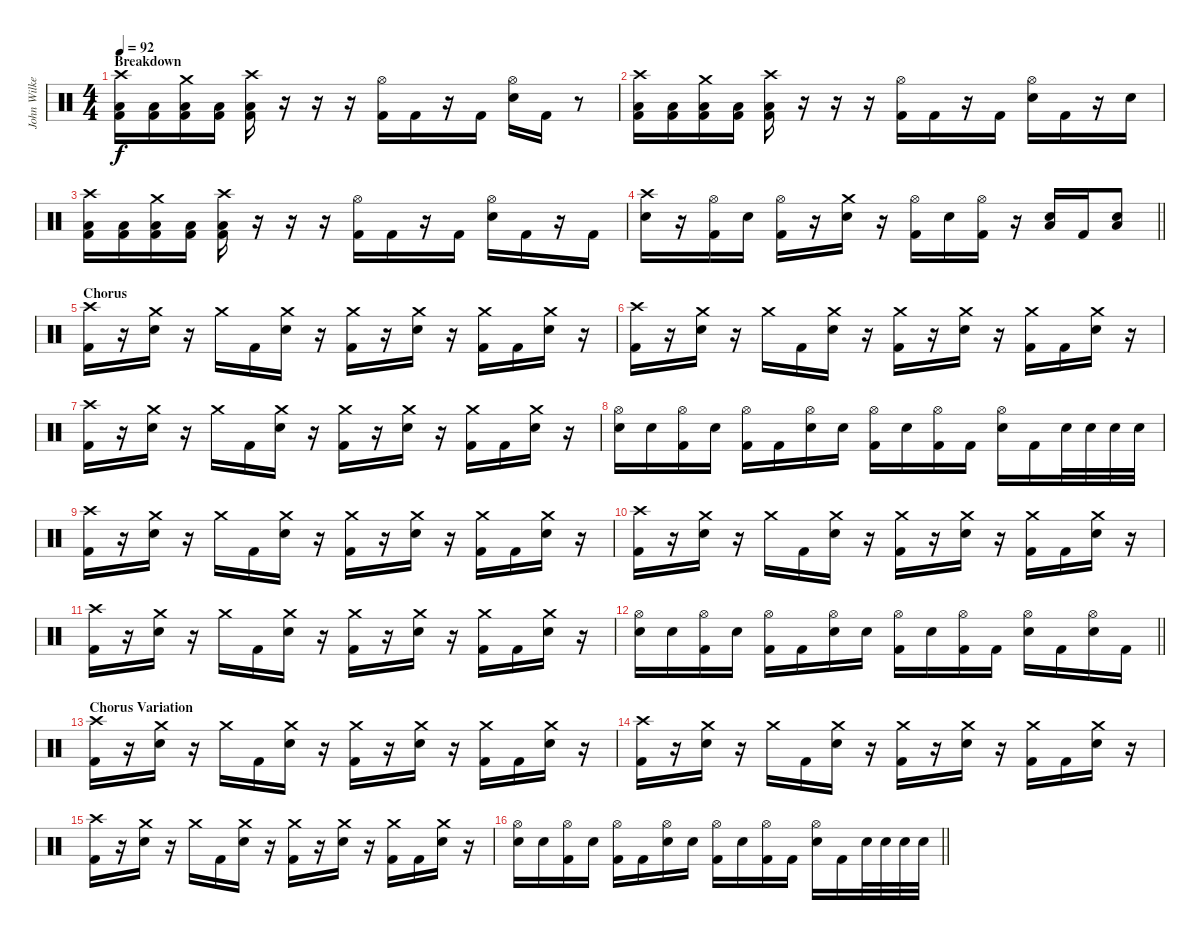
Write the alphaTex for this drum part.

\track ("John Wilkes (Percussion)" "John Wilke") {instrument percussion}
\staff {score}
\articulation defaults
\ts (4 4)
\section ("" "Breakdown")
\tempo 92
\clef neutral
\ks c
("Crash high (hit)" "Low Floor Tom (hit)" "Kick (hit) 2").16{dy f} ("Low Floor Tom (hit)" "Kick (hit) 2").16 ("Crash medium (hit)" "Low Floor Tom (hit)" "Kick (hit) 2").16 ("Low Floor Tom (hit)" "Kick (hit) 2").16 ("Crash high (hit)" "Low Floor Tom (hit)" "Kick (hit) 2").16 r.16 r.16 r.16 ("Hi-Hat (open)" "Kick (hit) 2").16 "Kick (hit) 2".16 r.16 "Kick (hit) 2".16 ("Hi-Hat (open)" "Electric Snare (hit)").16 "Kick (hit) 2".16 r.8 |
("Crash high (hit)" "Low Floor Tom (hit)" "Kick (hit) 2").16 ("Low Floor Tom (hit)" "Kick (hit) 2").16 ("Crash medium (hit)" "Low Floor Tom (hit)" "Kick (hit) 2").16 ("Low Floor Tom (hit)" "Kick (hit) 2").16 ("Crash high (hit)" "Low Floor Tom (hit)" "Kick (hit) 2").16 r.16 r.16 r.16 ("Hi-Hat (open)" "Kick (hit) 2").16 "Kick (hit) 2".16 r.16 "Kick (hit) 2".16 ("Hi-Hat (open)" "Electric Snare (hit)").16 "Kick (hit) 2".16 r.16 "Electric Snare (hit)".16 |
("Crash high (hit)" "Low Floor Tom (hit)" "Kick (hit) 2").16 ("Low Floor Tom (hit)" "Kick (hit) 2").16 ("Crash medium (hit)" "Low Floor Tom (hit)" "Kick (hit) 2").16 ("Low Floor Tom (hit)" "Kick (hit) 2").16 ("Crash high (hit)" "Low Floor Tom (hit)" "Kick (hit) 2").16 r.16 r.16 r.16 ("Hi-Hat (open)" "Kick (hit) 2").16 "Kick (hit) 2".16 r.16 "Kick (hit) 2".16 ("Hi-Hat (open)" "Electric Snare (hit)").16 "Kick (hit) 2".16 r.16 "Kick (hit) 2".16 |
\barLineRight lightlight
("Crash high (hit)" "Electric Snare (hit)").16 r.16 ("Hi-Hat (open)" "Kick (hit) 2").16 "Electric Snare (hit)".16 ("Hi-Hat (open)" "Kick (hit) 2").16 r.16 ("Crash medium (hit)" "Electric Snare (hit)").16 r.16 ("Hi-Hat (open)" "Kick (hit) 2").16 "Electric Snare (hit)".16 ("Hi-Hat (open)" "Kick (hit) 2").16 r.16 ("Electric Snare (hit)" "Low Floor Tom (hit)").16 "Kick (hit) 2".16 ("Electric Snare (hit)" "Low Floor Tom (hit)").8 |
\section ("" "Chorus")
("Crash high (hit)" "Kick (hit) 2").16 r.16 ("Crash medium (hit)" "Electric Snare (hit)").16 r.16 "Crash medium (hit)".16 "Kick (hit) 2".16 ("Crash medium (hit)" "Electric Snare (hit)").16 r.16 ("Crash medium (hit)" "Kick (hit) 2").16 r.16 ("Crash medium (hit)" "Electric Snare (hit)").16 r.16 ("Crash medium (hit)" "Kick (hit) 2").16 "Kick (hit) 2".16 ("Crash medium (hit)" "Electric Snare (hit)").16 r.16 |
("Crash high (hit)" "Kick (hit) 2").16 r.16 ("Crash medium (hit)" "Electric Snare (hit)").16 r.16 "Crash medium (hit)".16 "Kick (hit) 2".16 ("Crash medium (hit)" "Electric Snare (hit)").16 r.16 ("Crash medium (hit)" "Kick (hit) 2").16 r.16 ("Crash medium (hit)" "Electric Snare (hit)").16 r.16 ("Crash medium (hit)" "Kick (hit) 2").16 "Kick (hit) 2".16 ("Crash medium (hit)" "Electric Snare (hit)").16 r.16 |
("Crash high (hit)" "Kick (hit) 2").16 r.16 ("Crash medium (hit)" "Electric Snare (hit)").16 r.16 "Crash medium (hit)".16 "Kick (hit) 2".16 ("Crash medium (hit)" "Electric Snare (hit)").16 r.16 ("Crash medium (hit)" "Kick (hit) 2").16 r.16 ("Crash medium (hit)" "Electric Snare (hit)").16 r.16 ("Crash medium (hit)" "Kick (hit) 2").16 "Kick (hit) 2".16 ("Crash medium (hit)" "Electric Snare (hit)").16 r.16 |
("Hi-Hat (open)" "Electric Snare (hit)").16 "Electric Snare (hit)".16 ("Hi-Hat (open)" "Kick (hit) 2").16 "Electric Snare (hit)".16 ("Hi-Hat (open)" "Kick (hit) 2").16 "Kick (hit) 2".16 ("Hi-Hat (open)" "Electric Snare (hit)").16 "Electric Snare (hit)".16 ("Hi-Hat (open)" "Kick (hit) 2").16 "Electric Snare (hit)".16 ("Hi-Hat (open)" "Kick (hit) 2").16 "Kick (hit) 2".16 ("Hi-Hat (open)" "Electric Snare (hit)").16 "Kick (hit) 2".16 "Electric Snare (hit)".32 "Electric Snare (hit)".32 "Electric Snare (hit)".32 "Electric Snare (hit)".32 |
("Crash high (hit)" "Kick (hit) 2").16 r.16 ("Crash medium (hit)" "Electric Snare (hit)").16 r.16 "Crash medium (hit)".16 "Kick (hit) 2".16 ("Crash medium (hit)" "Electric Snare (hit)").16 r.16 ("Crash medium (hit)" "Kick (hit) 2").16 r.16 ("Crash medium (hit)" "Electric Snare (hit)").16 r.16 ("Crash medium (hit)" "Kick (hit) 2").16 "Kick (hit) 2".16 ("Crash medium (hit)" "Electric Snare (hit)").16 r.16 |
("Crash high (hit)" "Kick (hit) 2").16 r.16 ("Crash medium (hit)" "Electric Snare (hit)").16 r.16 "Crash medium (hit)".16 "Kick (hit) 2".16 ("Crash medium (hit)" "Electric Snare (hit)").16 r.16 ("Crash medium (hit)" "Kick (hit) 2").16 r.16 ("Crash medium (hit)" "Electric Snare (hit)").16 r.16 ("Crash medium (hit)" "Kick (hit) 2").16 "Kick (hit) 2".16 ("Crash medium (hit)" "Electric Snare (hit)").16 r.16 |
("Crash high (hit)" "Kick (hit) 2").16 r.16 ("Crash medium (hit)" "Electric Snare (hit)").16 r.16 "Crash medium (hit)".16 "Kick (hit) 2".16 ("Crash medium (hit)" "Electric Snare (hit)").16 r.16 ("Crash medium (hit)" "Kick (hit) 2").16 r.16 ("Crash medium (hit)" "Electric Snare (hit)").16 r.16 ("Crash medium (hit)" "Kick (hit) 2").16 "Kick (hit) 2".16 ("Crash medium (hit)" "Electric Snare (hit)").16 r.16 |
\barLineRight lightlight
("Hi-Hat (open)" "Electric Snare (hit)").16 "Electric Snare (hit)".16 ("Hi-Hat (open)" "Kick (hit) 2").16 "Electric Snare (hit)".16 ("Hi-Hat (open)" "Kick (hit) 2").16 "Kick (hit) 2".16 ("Hi-Hat (open)" "Electric Snare (hit)").16 "Electric Snare (hit)".16 ("Hi-Hat (open)" "Kick (hit) 2").16 "Electric Snare (hit)".16 ("Hi-Hat (open)" "Kick (hit) 2").16 "Kick (hit) 2".16 ("Hi-Hat (open)" "Electric Snare (hit)").16 "Kick (hit) 2".16 ("Hi-Hat (open)" "Electric Snare (hit)").16 "Kick (hit) 2".16 |
\section ("" "Chorus Variation")
("Crash high (hit)" "Kick (hit) 2").16 r.16 ("Crash medium (hit)" "Electric Snare (hit)").16 r.16 "Crash medium (hit)".16 "Kick (hit) 2".16 ("Crash medium (hit)" "Electric Snare (hit)").16 r.16 ("Crash medium (hit)" "Kick (hit) 2").16 r.16 ("Crash medium (hit)" "Electric Snare (hit)").16 r.16 ("Crash medium (hit)" "Kick (hit) 2").16 "Kick (hit) 2".16 ("Crash medium (hit)" "Electric Snare (hit)").16 r.16 |
("Crash high (hit)" "Kick (hit) 2").16 r.16 ("Crash medium (hit)" "Electric Snare (hit)").16 r.16 "Crash medium (hit)".16 "Kick (hit) 2".16 ("Crash medium (hit)" "Electric Snare (hit)").16 r.16 ("Crash medium (hit)" "Kick (hit) 2").16 r.16 ("Crash medium (hit)" "Electric Snare (hit)").16 r.16 ("Crash medium (hit)" "Kick (hit) 2").16 "Kick (hit) 2".16 ("Crash medium (hit)" "Electric Snare (hit)").16 r.16 |
("Crash high (hit)" "Kick (hit) 2").16 r.16 ("Crash medium (hit)" "Electric Snare (hit)").16 r.16 "Crash medium (hit)".16 "Kick (hit) 2".16 ("Crash medium (hit)" "Electric Snare (hit)").16 r.16 ("Crash medium (hit)" "Kick (hit) 2").16 r.16 ("Crash medium (hit)" "Electric Snare (hit)").16 r.16 ("Crash medium (hit)" "Kick (hit) 2").16 "Kick (hit) 2".16 ("Crash medium (hit)" "Electric Snare (hit)").16 r.16 |
\barLineRight lightlight
("Hi-Hat (open)" "Electric Snare (hit)").16 "Electric Snare (hit)".16 ("Hi-Hat (open)" "Kick (hit) 2").16 "Electric Snare (hit)".16 ("Hi-Hat (open)" "Kick (hit) 2").16 "Kick (hit) 2".16 ("Hi-Hat (open)" "Electric Snare (hit)").16 "Electric Snare (hit)".16 ("Hi-Hat (open)" "Kick (hit) 2").16 "Electric Snare (hit)".16 ("Hi-Hat (open)" "Kick (hit) 2").16 "Kick (hit) 2".16 ("Hi-Hat (open)" "Electric Snare (hit)").16 "Kick (hit) 2".16 "Electric Snare (hit)".32 "Electric Snare (hit)".32 "Electric Snare (hit)".32 "Electric Snare (hit)".32
